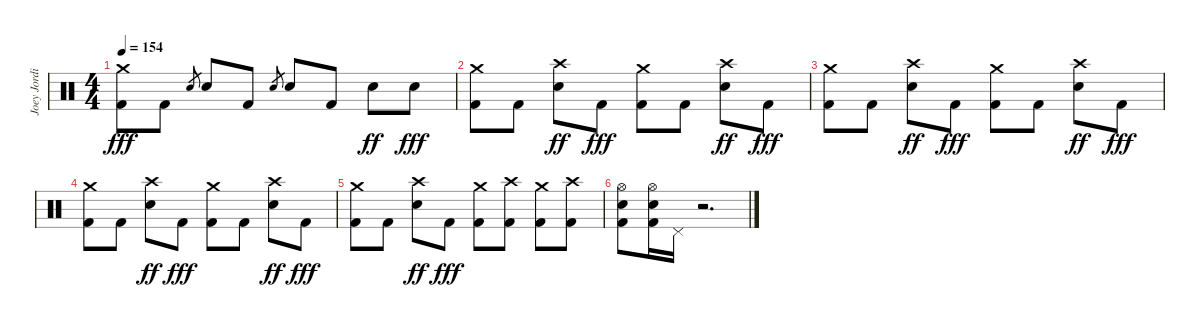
\track ("Joey Jordison" "Joey Jordi") {instrument percussion}
\staff {score}
\articulation defaults
\ts (4 4)
\tempo 154
\clef neutral
\ks c
("Crash medium (hit)" "Kick (hit) 2").8{dy fff} "Kick (hit) 2".8 "Electric Snare (hit)".8{gr} "Electric Snare (hit)".8 "Kick (hit) 2".8 "Electric Snare (hit)".8{gr} "Electric Snare (hit)".8 "Kick (hit) 2".8 "Electric Snare (hit)".8{dy ff} "Electric Snare (hit)".8{dy fff} |
("Crash medium (hit)" "Kick (hit) 2").8 "Kick (hit) 2".8 ("Crash high (hit)" "Electric Snare (hit)").8{dy ff} "Kick (hit) 2".8{dy fff} ("Crash medium (hit)" "Kick (hit) 2").8 "Kick (hit) 2".8 ("Crash high (hit)" "Electric Snare (hit)").8{dy ff} "Kick (hit) 2".8{dy fff} |
("Crash medium (hit)" "Kick (hit) 2").8 "Kick (hit) 2".8 ("Crash high (hit)" "Electric Snare (hit)").8{dy ff} "Kick (hit) 2".8{dy fff} ("Crash medium (hit)" "Kick (hit) 2").8 "Kick (hit) 2".8 ("Crash high (hit)" "Electric Snare (hit)").8{dy ff} "Kick (hit) 2".8{dy fff} |
("Crash medium (hit)" "Kick (hit) 2").8 "Kick (hit) 2".8 ("Crash high (hit)" "Electric Snare (hit)").8{dy ff} "Kick (hit) 2".8{dy fff} ("Crash medium (hit)" "Kick (hit) 2").8 "Kick (hit) 2".8 ("Crash high (hit)" "Electric Snare (hit)").8{dy ff} "Kick (hit) 2".8{dy fff} |
("Crash medium (hit)" "Kick (hit) 2").8 "Kick (hit) 2".8 ("Crash high (hit)" "Electric Snare (hit)").8{dy ff} "Kick (hit) 2".8{dy fff} ("Crash medium (hit)" "Kick (hit) 2").8 ("Crash high (hit)" "Kick (hit) 2").8 ("Crash medium (hit)" "Kick (hit) 2").8 ("Crash high (hit)" "Kick (hit) 2").8 |
("Hi-Hat (open)" "Electric Snare (hit)" "Kick (hit) 2").8 ("Hi-Hat (open)" "Electric Snare (hit)" "Kick (hit) 2").16 "Pedal Hi-Hat (hit)".16 r.2{d}
